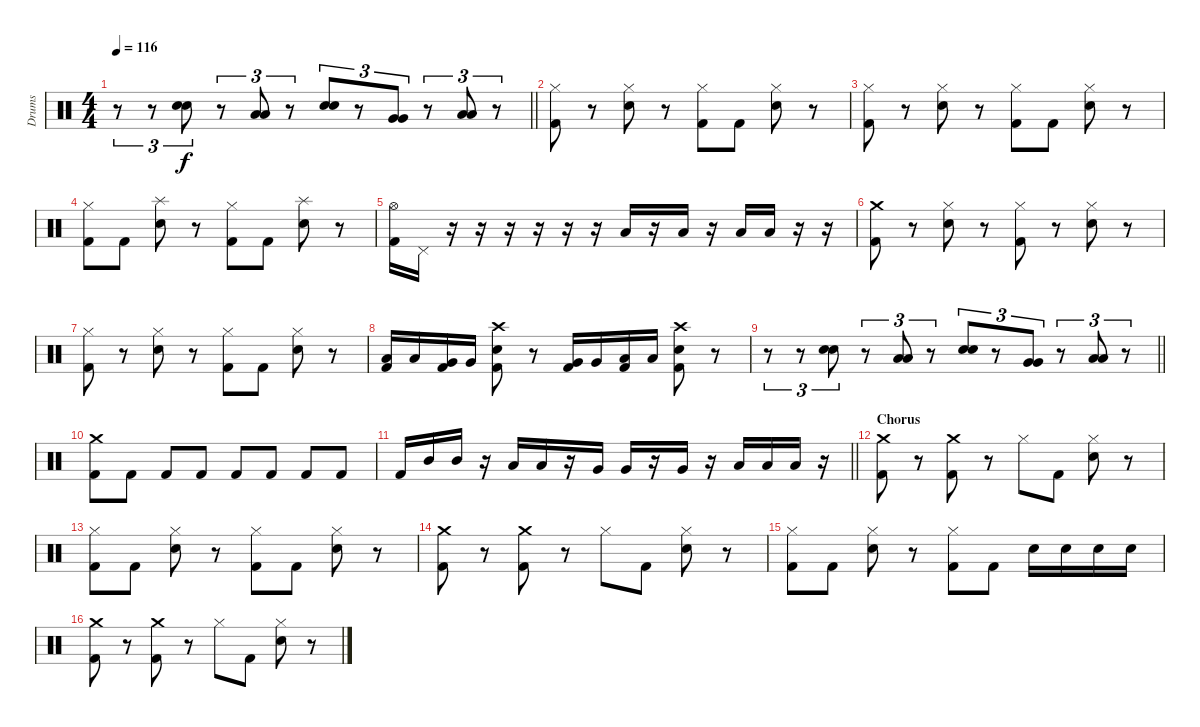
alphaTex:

\track ("Drums" "Drums") {instrument percussion}
\staff {score}
\articulation defaults
\ts (4 4)
\tempo 116
\clef neutral
\barLineRight lightlight
\ks c
r.8{tu (3 2) dy f} r.8{tu (3 2)} ("Snare (hit) 2" "Snare (hit) 2").8{tu (3 2)} r.8{tu (3 2)} ("Low Tom (hit)" "Low Tom (hit)").8{tu (3 2)} r.8{tu (3 2)} ("Snare (hit) 2" "Snare (hit) 2").8{tu (3 2)} r.8{tu (3 2)} ("Very Low Tom (hit)" "Very Low Tom (hit)").8{tu (3 2)} r.8{tu (3 2)} ("Low Floor Tom (hit)" "Low Floor Tom (hit)").8{tu (3 2)} r.8{tu (3 2)} |
("Hi-Hat (closed)" "Kick (hit) 2").8 r.8 ("Hi-Hat (closed)" "Snare (hit) 2").8 r.8 ("Hi-Hat (closed)" "Kick (hit) 2").8 "Kick (hit) 2".8 ("Hi-Hat (closed)" "Snare (hit) 2").8 r.8 |
("Hi-Hat (closed)" "Kick (hit) 2").8 r.8 ("Hi-Hat (closed)" "Snare (hit) 2").8 r.8 ("Hi-Hat (closed)" "Kick (hit) 2").8 "Kick (hit) 2".8 ("Hi-Hat (closed)" "Snare (hit) 2").8 r.8 |
("Hi-Hat (closed)" "Kick (hit) 2").8 "Kick (hit) 2".8 ("Splash (hit)" "Snare (hit) 2").8 r.8 ("Hi-Hat (closed)" "Kick (hit) 2").8 "Kick (hit) 2".8 ("Splash (hit)" "Snare (hit) 2").8 r.8 |
("Hi-Hat (open)" "Kick (hit) 2").16 "Pedal Hi-Hat (hit)".16 r.16 r.16 r.16 r.16 r.16 r.16 "Low Tom (hit)".16 r.16 "Low Tom (hit)".16 r.16 "Low Floor Tom (hit)".16 "Low Floor Tom (hit)".16 r.16 r.16 |
("Crash medium (hit)" "Kick (hit) 2").8 r.8 ("Hi-Hat (closed)" "Snare (hit) 2").8 r.8 ("Hi-Hat (closed)" "Kick (hit) 2").8 r.8 ("Hi-Hat (closed)" "Snare (hit) 2").8 r.8 |
("Hi-Hat (closed)" "Kick (hit) 2").8 r.8 ("Hi-Hat (closed)" "Snare (hit) 2").8 r.8 ("Hi-Hat (closed)" "Kick (hit) 2").8 "Kick (hit) 2".8 ("Hi-Hat (closed)" "Snare (hit) 2").8 r.8 |
("Low Tom (hit)" "Kick (hit) 2").16 "Low Tom (hit)".16 ("Very Low Tom (hit)" "Kick (hit) 2").16 "Very Low Tom (hit)".16 ("Crash high (hit)" "Snare (hit) 2" "Kick (hit) 2").8 r.8 ("Very Low Tom (hit)" "Kick (hit) 2").16 "Very Low Tom (hit)".16 ("Low Floor Tom (hit)" "Kick (hit) 2").16 "Low Floor Tom (hit)".16 ("Crash high (hit)" "Snare (hit) 2" "Kick (hit) 2").8 r.8 |
\barLineRight lightlight
r.8{tu (3 2)} r.8{tu (3 2)} ("Snare (hit) 2" "Snare (hit) 2").8{tu (3 2)} r.8{tu (3 2)} ("Low Tom (hit)" "Low Tom (hit)").8{tu (3 2)} r.8{tu (3 2)} ("Snare (hit) 2" "Snare (hit) 2").8{tu (3 2)} r.8{tu (3 2)} ("Very Low Tom (hit)" "Very Low Tom (hit)").8{tu (3 2)} r.8{tu (3 2)} ("Low Floor Tom (hit)" "Low Floor Tom (hit)").8{tu (3 2)} r.8{tu (3 2)} |
("Crash medium (hit)" "Kick (hit) 2").8 "Kick (hit) 2".8 "Kick (hit) 2".8 "Kick (hit) 2".8 "Kick (hit) 2".8 "Kick (hit) 2".8 "Kick (hit) 2".8 "Kick (hit) 2".8 |
\barLineRight lightlight "Kick (hit) 2".16 "Mid Tom (hit)".16 "Mid Tom (hit)".16
r.16 "Low Tom (hit)".16 "Low Tom (hit)".16 r.16 "Very Low Tom (hit)".16 "Very Low Tom (hit)".16 r.16 "Very Low Tom (hit)".16 r.16 "Low Floor Tom (hit)".16 "Low Floor Tom (hit)".16 "Low Floor Tom (hit)".16 r.16 |
\section ("" "Chorus")
("Crash medium (hit)" "Kick (hit) 2").8 r.8 ("Crash medium (hit)" "Kick (hit) 2").8 r.8 "Hi-Hat (closed)".8 "Kick (hit) 2".8 ("Hi-Hat (closed)" "Snare (hit) 2").8 r.8 |
("Hi-Hat (closed)" "Kick (hit) 2").8 "Kick (hit) 2".8 ("Hi-Hat (closed)" "Snare (hit) 2").8 r.8 ("Hi-Hat (closed)" "Kick (hit) 2").8 "Kick (hit) 2".8 ("Hi-Hat (closed)" "Snare (hit) 2").8 r.8 |
("Crash medium (hit)" "Kick (hit) 2").8 r.8 ("Crash medium (hit)" "Kick (hit) 2").8 r.8 "Hi-Hat (closed)".8 "Kick (hit) 2".8 ("Hi-Hat (closed)" "Snare (hit) 2").8 r.8 |
("Hi-Hat (closed)" "Kick (hit) 2").8 "Kick (hit) 2".8 ("Hi-Hat (closed)" "Snare (hit) 2").8 r.8 ("Hi-Hat (closed)" "Kick (hit) 2").8 "Kick (hit) 2".8 "Snare (hit) 2".16 "Snare (hit) 2".16 "Snare (hit) 2".16 "Snare (hit) 2".16 |
("Crash medium (hit)" "Kick (hit) 2").8 r.8 ("Crash medium (hit)" "Kick (hit) 2").8 r.8 "Hi-Hat (closed)".8 "Kick (hit) 2".8 ("Hi-Hat (closed)" "Snare (hit) 2").8 r.8
